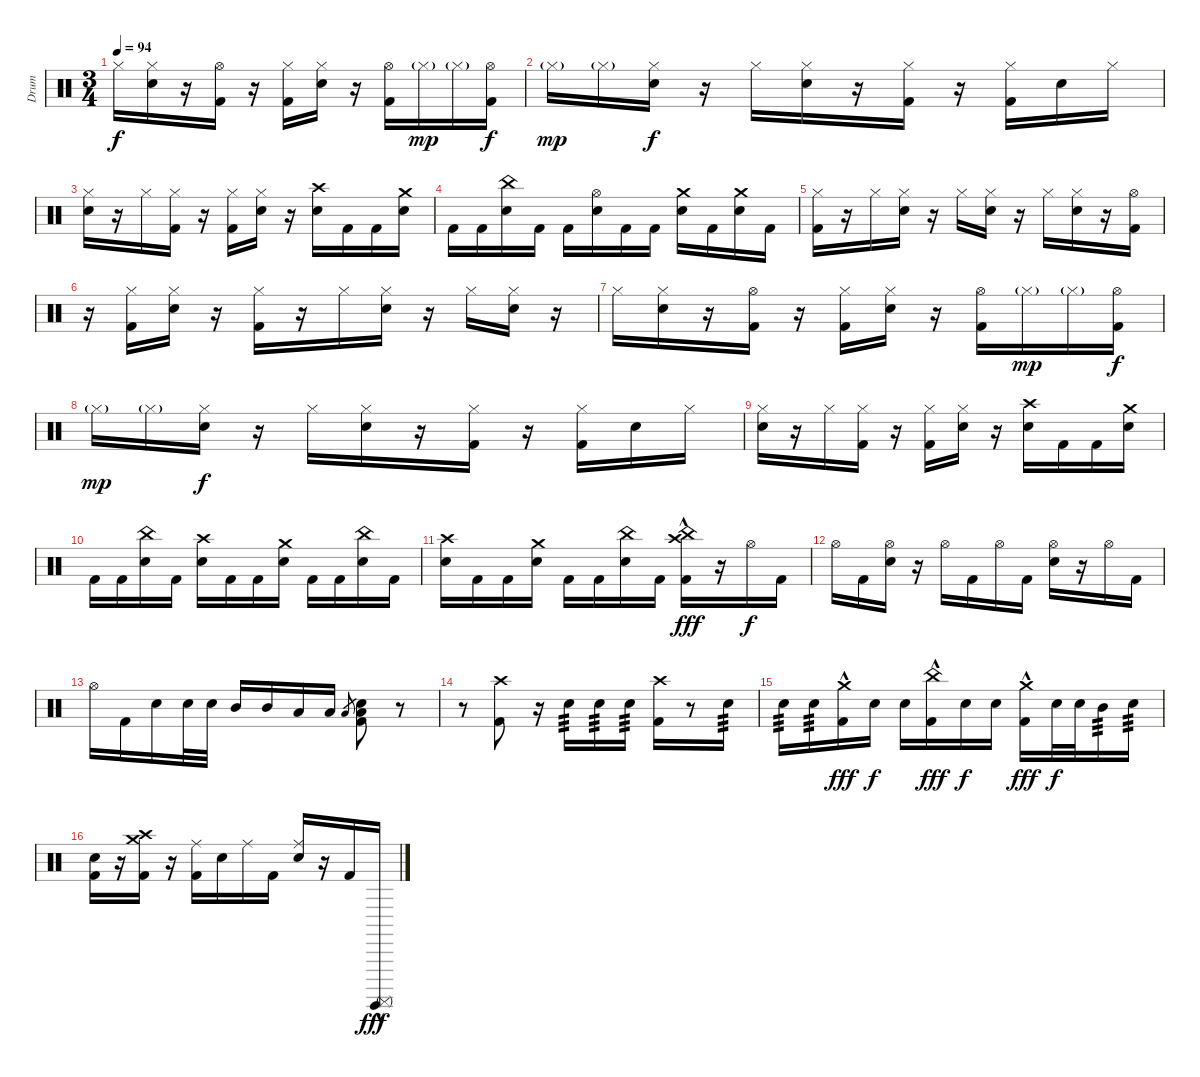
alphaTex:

\track ("Drum" "Drum") {instrument percussion}
\staff {score}
\articulation defaults
\ts (3 4)
\tempo 94
\clef neutral
\ks c "Hi-Hat (closed)".16{dy f}
("Hi-Hat (closed)" "Electric Snare (hit)").16 r.16 ("Hi-Hat (open)" "Kick (hit) 2").16 r.16 ("Hi-Hat (closed)" "Kick (hit) 2").16 ("Hi-Hat (closed)" "Electric Snare (hit)").16 r.16 ("Hi-Hat (open)" "Kick (hit) 2").16 "Hi-Hat (closed)"{g}.16{dy mp} "Hi-Hat (closed)"{g}.16 ("Hi-Hat (open)" "Kick (hit) 2").16{dy f} |
"Hi-Hat (closed)"{g}.16{dy mp} "Hi-Hat (closed)"{g}.16 ("Hi-Hat (closed)" "Electric Snare (hit)").16{dy f} r.16 "Hi-Hat (closed)".16 ("Hi-Hat (closed)" "Electric Snare (hit)").16 r.16 ("Hi-Hat (closed)" "Kick (hit) 2").16 r.16 ("Hi-Hat (closed)" "Kick (hit) 2").16 "Electric Snare (hit)".16 "Hi-Hat (closed)".16 |
("Hi-Hat (closed)" "Electric Snare (hit)").16 r.16 "Hi-Hat (closed)".16 ("Hi-Hat (closed)" "Kick (hit) 2").16 r.16 ("Hi-Hat (closed)" "Kick (hit) 2").16 ("Hi-Hat (closed)" "Electric Snare (hit)").16 r.16 ("Crash high (hit)" "Electric Snare (hit)").16 "Kick (hit) 2".16 "Kick (hit) 2".16 ("Crash medium (hit)" "Electric Snare (hit)").16 |
"Kick (hit) 2".16 "Kick (hit) 2".16 ("China (hit)" "Electric Snare (hit)").16 "Kick (hit) 2".16 "Kick (hit) 2".16 ("Hi-Hat (open)" "Electric Snare (hit)").16 "Kick (hit) 2".16 "Kick (hit) 2".16 ("Crash medium (hit)" "Electric Snare (hit)").16 "Kick (hit) 2".16 ("Crash medium (hit)" "Electric Snare (hit)").16 "Kick (hit) 2".16 |
("Hi-Hat (closed)" "Kick (hit) 2").16 r.16 "Hi-Hat (closed)".16 ("Hi-Hat (closed)" "Electric Snare (hit)").16 r.16 "Hi-Hat (closed)".16 ("Hi-Hat (closed)" "Electric Snare (hit)").16 r.16 "Hi-Hat (closed)".16 ("Hi-Hat (closed)" "Electric Snare (hit)").16 r.16 ("Hi-Hat (open)" "Kick (hit) 2").16 |
r.16 ("Hi-Hat (closed)" "Kick (hit) 2").16 ("Hi-Hat (closed)" "Electric Snare (hit)").16 r.16 ("Hi-Hat (closed)" "Kick (hit) 2").16 r.16 "Hi-Hat (closed)".16 ("Hi-Hat (closed)" "Electric Snare (hit)").16 r.16 "Hi-Hat (closed)".16 ("Hi-Hat (closed)" "Electric Snare (hit)").16 r.16 |
"Hi-Hat (closed)".16 ("Hi-Hat (closed)" "Electric Snare (hit)").16 r.16 ("Hi-Hat (open)" "Kick (hit) 2").16 r.16 ("Hi-Hat (closed)" "Kick (hit) 2").16 ("Hi-Hat (closed)" "Electric Snare (hit)").16 r.16 ("Hi-Hat (open)" "Kick (hit) 2").16 "Hi-Hat (closed)"{g}.16{dy mp} "Hi-Hat (closed)"{g}.16 ("Hi-Hat (open)" "Kick (hit) 2").16{dy f} |
"Hi-Hat (closed)"{g}.16{dy mp} "Hi-Hat (closed)"{g}.16 ("Hi-Hat (closed)" "Electric Snare (hit)").16{dy f} r.16 "Hi-Hat (closed)".16 ("Hi-Hat (closed)" "Electric Snare (hit)").16 r.16 ("Hi-Hat (closed)" "Kick (hit) 2").16 r.16 ("Hi-Hat (closed)" "Kick (hit) 2").16 "Electric Snare (hit)".16 "Hi-Hat (closed)".16 |
("Hi-Hat (closed)" "Electric Snare (hit)").16 r.16 "Hi-Hat (closed)".16 ("Hi-Hat (closed)" "Kick (hit) 2").16 r.16 ("Hi-Hat (closed)" "Kick (hit) 2").16 ("Hi-Hat (closed)" "Electric Snare (hit)").16 r.16 ("Crash high (hit)" "Electric Snare (hit)").16 "Kick (hit) 2".16 "Kick (hit) 2".16 ("Crash medium (hit)" "Electric Snare (hit)").16 |
"Kick (hit) 2".16 "Kick (hit) 2".16 ("China (hit)" "Electric Snare (hit)").16 "Kick (hit) 2".16 ("Crash high (hit)" "Electric Snare (hit)").16 "Kick (hit) 2".16 "Kick (hit) 2".16 ("Crash medium (hit)" "Electric Snare (hit)").16 "Kick (hit) 2".16 "Kick (hit) 2".16 ("China (hit)" "Electric Snare (hit)").16 "Kick (hit) 2".16 |
("Crash high (hit)" "Electric Snare (hit)").16 "Kick (hit) 2".16 "Kick (hit) 2".16 ("Crash medium (hit)" "Electric Snare (hit)").16 "Kick (hit) 2".16 "Kick (hit) 2".16 ("China (hit)" "Electric Snare (hit)").16 "Kick (hit) 2".16 ("Crash high (hit)"{hac} "China (hit)"{hac} "Kick (hit) 2"{hac}).16{dy fff} r.16 "Hi-Hat (open)".16{dy f} "Kick (hit) 2".16 |
"Hi-Hat (open)".16 "Kick (hit) 2".16 ("Hi-Hat (open)" "Electric Snare (hit)").16 r.16 "Hi-Hat (open)".16 "Kick (hit) 2".16 "Hi-Hat (open)".16 "Kick (hit) 2".16 ("Hi-Hat (open)" "Electric Snare (hit)").16 r.16 "Hi-Hat (open)".16 "Kick (hit) 2".16 |
"Hi-Hat (open)".16 "Kick (hit) 2".16 "Electric Snare (hit)".16 "Electric Snare (hit)".32 "Electric Snare (hit)".32 "Mid Tom (hit)".16 "Mid Tom (hit)".16 "Low Tom (hit)".16 "Low Tom (hit)".16 "Low Tom (hit)"{sl}.8{gr} ("Electric Snare (hit)" "Low Tom (hit)" "Kick (hit) 2").8 r.8 |
r.8 ("Crash high (hit)" "Kick (hit) 2").8 r.16 "Electric Snare (hit)".16{tp 3} "Electric Snare (hit)".16{tp 3} "Electric Snare (hit)".16{tp 3} ("Crash high (hit)" "Kick (hit) 2").16 r.8 "Electric Snare (hit)".16{tp 3} |
"Electric Snare (hit)".16{tp 3} "Electric Snare (hit)".16{tp 3} ("Crash medium (hit)"{hac} "Kick (hit) 2").16{dy fff} "Electric Snare (hit)".16{dy f} "Electric Snare (hit)".16 ("China (hit)"{hac} "Kick (hit) 2").16{dy fff} "Electric Snare (hit)".16{dy f} "Electric Snare (hit)".16 ("Crash medium (hit)"{hac} "Kick (hit) 2").16{dy fff} "Electric Snare (hit)".32{dy f} "Electric Snare (hit)".32 "Mid Tom (hit)".16{tp 3} "Electric Snare (hit)".16{tp 3} |
("Electric Snare (hit)" "Kick (hit) 2").16 r.16 ("Crash medium (hit)" "Crash high (hit)" "Kick (hit) 2").16 r.16 ("Ride (middle)" "Kick (hit) 2").16 "Electric Snare (hit)".16 "Ride (middle)".16 "Kick (hit) 2".16 ("Ride (middle)" "Electric Snare (hit)").16 r.16 "Kick (hit) 2".16 ("Surdo (mute)"{hac} "Surdo (hit)"{hac}).16{dy fff}
